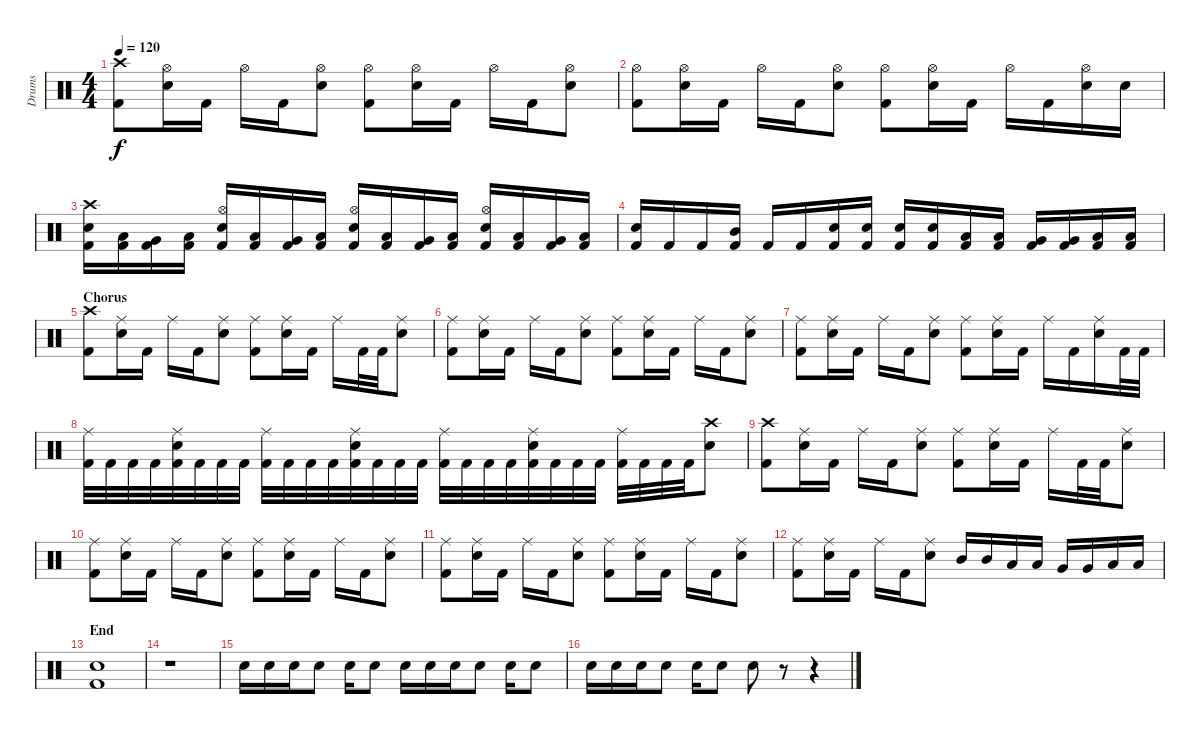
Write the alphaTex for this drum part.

\track ("Drums" "Drums") {instrument percussion}
\staff {score}
\articulation defaults
\ts (4 4)
\tempo 120
\clef neutral
\ks c
("Crash high (hit)" "Kick (hit) 2").8{dy f} ("Hi-Hat (open)" "Snare (hit) 2").16 "Kick (hit) 2".16 "Hi-Hat (open)".16 "Kick (hit) 2".16 ("Hi-Hat (open)" "Snare (hit) 2").8 ("Hi-Hat (open)" "Kick (hit) 2").8 ("Hi-Hat (open)" "Snare (hit) 2").16 "Kick (hit) 2".16 "Hi-Hat (open)".16 "Kick (hit) 2".16 ("Hi-Hat (open)" "Snare (hit) 2").8 |
("Hi-Hat (open)" "Kick (hit) 2").8 ("Hi-Hat (open)" "Snare (hit) 2").16 "Kick (hit) 2".16 "Hi-Hat (open)".16 "Kick (hit) 2".16 ("Hi-Hat (open)" "Snare (hit) 2").8 ("Hi-Hat (open)" "Kick (hit) 2").8 ("Hi-Hat (open)" "Snare (hit) 2").16 "Kick (hit) 2".16 "Hi-Hat (open)".16 "Kick (hit) 2".16 ("Hi-Hat (open)" "Snare (hit) 2").16 "Snare (hit) 2".16 |
("Crash high (hit)" "Snare (hit) 2" "Kick (hit) 2").16 ("Low Tom (hit)" "Kick (hit) 2").16 ("Very Low Tom (hit)" "Kick (hit) 2").16 ("Low Floor Tom (hit)" "Kick (hit) 2").16 ("Hi-Hat (open)" "Snare (hit) 2" "Kick (hit) 2").16 ("Low Tom (hit)" "Kick (hit) 2").16 ("Very Low Tom (hit)" "Kick (hit) 2").16 ("Low Floor Tom (hit)" "Kick (hit) 2").16 ("Hi-Hat (open)" "Snare (hit) 2" "Kick (hit) 2").16 ("Low Tom (hit)" "Kick (hit) 2").16 ("Very Low Tom (hit)" "Kick (hit) 2").16 ("Low Floor Tom (hit)" "Kick (hit) 2").16 ("Hi-Hat (open)" "Snare (hit) 2" "Kick (hit) 2").16 ("Low Tom (hit)" "Kick (hit) 2").16 ("Very Low Tom (hit)" "Kick (hit) 2").16 ("Low Floor Tom (hit)" "Kick (hit) 2").16 |
("Snare (hit) 2" "Kick (hit) 2").16 "Kick (hit) 2".16 "Kick (hit) 2".16 ("Mid Tom (hit)" "Kick (hit) 2").16 "Kick (hit) 2".16 "Kick (hit) 2".16 ("Snare (hit) 2" "Kick (hit) 2").16 ("Snare (hit) 2" "Kick (hit) 2").16 ("Snare (hit) 2" "Kick (hit) 2").16 ("Snare (hit) 2" "Kick (hit) 2").16 ("Low Tom (hit)" "Kick (hit) 2").16 ("Low Tom (hit)" "Kick (hit) 2").16 ("Very Low Tom (hit)" "Kick (hit) 2").16 ("Very Low Tom (hit)" "Kick (hit) 2").16 ("Low Floor Tom (hit)" "Kick (hit) 2").16 ("Low Floor Tom (hit)" "Kick (hit) 2").16 |
\section ("" "Chorus")
("Crash high (hit)" "Kick (hit) 2").8 ("Ride (middle)" "Snare (hit) 2").16 "Kick (hit) 2".16 "Ride (middle)".16 "Kick (hit) 2".16 ("Ride (middle)" "Snare (hit) 2").8 ("Ride (middle)" "Kick (hit) 2").8 ("Ride (middle)" "Snare (hit) 2").16 "Kick (hit) 2".16 "Ride (middle)".16 "Kick (hit) 2".32 "Kick (hit) 2".32 ("Ride (middle)" "Snare (hit) 2").8 |
("Ride (middle)" "Kick (hit) 2").8 ("Ride (middle)" "Snare (hit) 2").16 "Kick (hit) 2".16 "Ride (middle)".16 "Kick (hit) 2".16 ("Ride (middle)" "Snare (hit) 2").8 ("Ride (middle)" "Kick (hit) 2").8 ("Ride (middle)" "Snare (hit) 2").16 "Kick (hit) 2".16 "Ride (middle)".16 "Kick (hit) 2".16 ("Ride (middle)" "Snare (hit) 2").8 |
("Ride (middle)" "Kick (hit) 2").8 ("Ride (middle)" "Snare (hit) 2").16 "Kick (hit) 2".16 "Ride (middle)".16 "Kick (hit) 2".16 ("Ride (middle)" "Snare (hit) 2").8 ("Ride (middle)" "Kick (hit) 2").8 ("Ride (middle)" "Snare (hit) 2").16 "Kick (hit) 2".16 "Ride (middle)".16 "Kick (hit) 2".16 ("Ride (middle)" "Snare (hit) 2").16 "Kick (hit) 2".32 "Kick (hit) 2".32 |
("Ride (middle)" "Kick (hit) 2").32 "Kick (hit) 2".32 "Kick (hit) 2".32 "Kick (hit) 2".32 ("Ride (middle)" "Snare (hit) 2" "Kick (hit) 2").32 "Kick (hit) 2".32 "Kick (hit) 2".32 "Kick (hit) 2".32 ("Ride (middle)" "Kick (hit) 2").32 "Kick (hit) 2".32 "Kick (hit) 2".32 "Kick (hit) 2".32 ("Ride (middle)" "Snare (hit) 2" "Kick (hit) 2").32 "Kick (hit) 2".32 "Kick (hit) 2".32 "Kick (hit) 2".32 ("Ride (middle)" "Kick (hit) 2").32 "Kick (hit) 2".32 "Kick (hit) 2".32 "Kick (hit) 2".32 ("Ride (middle)" "Snare (hit) 2" "Kick (hit) 2").32 "Kick (hit) 2".32 "Kick (hit) 2".32 "Kick (hit) 2".32 ("Ride (middle)" "Kick (hit) 2").32 "Kick (hit) 2".32 "Kick (hit) 2".32 "Kick (hit) 2".32 ("Crash high (hit)" "Snare (hit) 2").8 |
("Crash high (hit)" "Kick (hit) 2").8 ("Ride (middle)" "Snare (hit) 2").16 "Kick (hit) 2".16 "Ride (middle)".16 "Kick (hit) 2".16 ("Ride (middle)" "Snare (hit) 2").8 ("Ride (middle)" "Kick (hit) 2").8 ("Ride (middle)" "Snare (hit) 2").16 "Kick (hit) 2".16 "Ride (middle)".16 "Kick (hit) 2".32 "Kick (hit) 2".32 ("Ride (middle)" "Snare (hit) 2").8 |
("Ride (middle)" "Kick (hit) 2").8 ("Ride (middle)" "Snare (hit) 2").16 "Kick (hit) 2".16 "Ride (middle)".16 "Kick (hit) 2".16 ("Ride (middle)" "Snare (hit) 2").8 ("Ride (middle)" "Kick (hit) 2").8 ("Ride (middle)" "Snare (hit) 2").16 "Kick (hit) 2".16 "Ride (middle)".16 "Kick (hit) 2".16 ("Ride (middle)" "Snare (hit) 2").8 |
("Ride (middle)" "Kick (hit) 2").8 ("Ride (middle)" "Snare (hit) 2").16 "Kick (hit) 2".16 "Ride (middle)".16 "Kick (hit) 2".16 ("Ride (middle)" "Snare (hit) 2").8 ("Ride (middle)" "Kick (hit) 2").8 ("Ride (middle)" "Snare (hit) 2").16 "Kick (hit) 2".16 "Ride (middle)".16 "Kick (hit) 2".16 ("Ride (middle)" "Snare (hit) 2").8 |
("Ride (middle)" "Kick (hit) 2").8 ("Ride (middle)" "Snare (hit) 2").16 "Kick (hit) 2".16 "Ride (middle)".16 "Kick (hit) 2".16 ("Ride (middle)" "Snare (hit) 2").8 "Mid Tom (hit)".16 "Mid Tom (hit)".16 "Low Tom (hit)".16 "Low Tom (hit)".16 "Very Low Tom (hit)".16 "Very Low Tom (hit)".16 "Low Floor Tom (hit)".16 "Low Floor Tom (hit)".16 |
\section ("" "End")
("Snare (hit) 2" "Kick (hit) 2").1 |
r.1 |
"Snare (hit) 2".16 "Snare (hit) 2".16 "Snare (hit) 2".16 "Snare (hit) 2".8 "Snare (hit) 2".16 "Snare (hit) 2".8 "Snare (hit) 2".16 "Snare (hit) 2".16 "Snare (hit) 2".16 "Snare (hit) 2".8 "Snare (hit) 2".16 "Snare (hit) 2".8 |
"Snare (hit) 2".16 "Snare (hit) 2".16 "Snare (hit) 2".16 "Snare (hit) 2".8 "Snare (hit) 2".16 "Snare (hit) 2".8 "Snare (hit) 2".8 r.8 r.4
